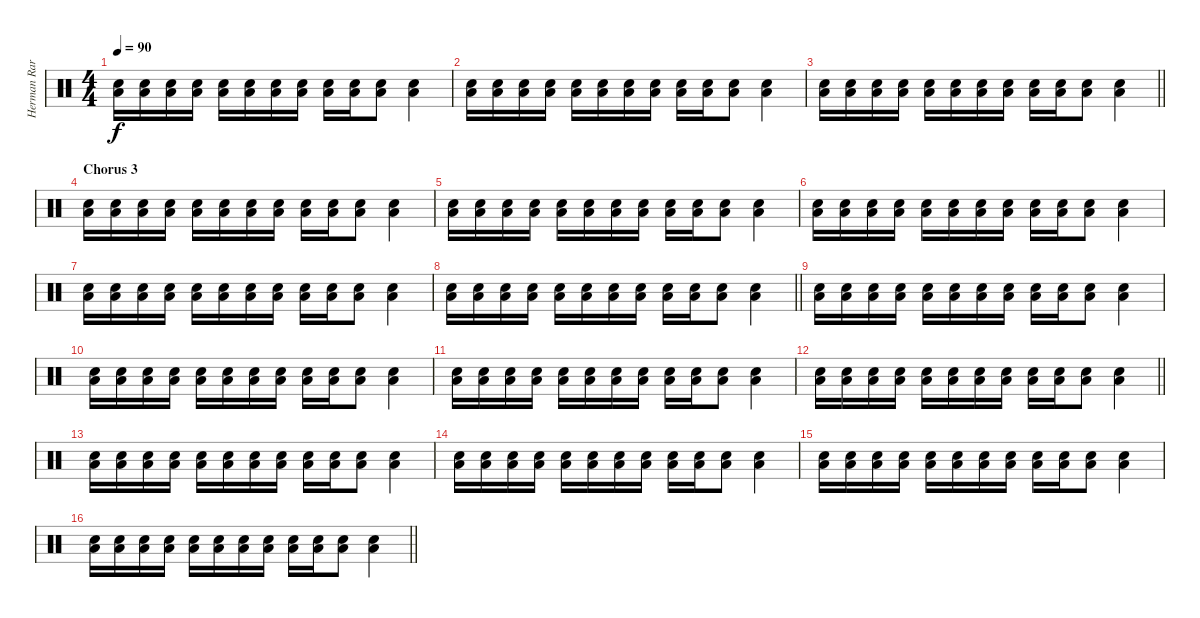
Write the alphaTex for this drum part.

\track ("Herman Rarebell (Drums)" "Herman Rar") {instrument percussion}
\staff {score}
\articulation defaults
\ts (4 4)
\tempo 90
\clef neutral
\ks c
("Electric Snare (hit)" "Low Floor Tom (hit)").16{dy f} ("Electric Snare (hit)" "Low Floor Tom (hit)").16 ("Electric Snare (hit)" "Low Floor Tom (hit)").16 ("Electric Snare (hit)" "Low Floor Tom (hit)").16 ("Electric Snare (hit)" "Low Floor Tom (hit)").16 ("Electric Snare (hit)" "Low Floor Tom (hit)").16 ("Electric Snare (hit)" "Low Floor Tom (hit)").16 ("Electric Snare (hit)" "Low Floor Tom (hit)").16 ("Electric Snare (hit)" "Low Floor Tom (hit)").16 ("Electric Snare (hit)" "Low Floor Tom (hit)").16 ("Electric Snare (hit)" "Low Floor Tom (hit)").8 ("Electric Snare (hit)" "Low Floor Tom (hit)").4{bd 240} |
("Electric Snare (hit)" "Low Floor Tom (hit)").16 ("Electric Snare (hit)" "Low Floor Tom (hit)").16 ("Electric Snare (hit)" "Low Floor Tom (hit)").16 ("Electric Snare (hit)" "Low Floor Tom (hit)").16 ("Electric Snare (hit)" "Low Floor Tom (hit)").16 ("Electric Snare (hit)" "Low Floor Tom (hit)").16 ("Electric Snare (hit)" "Low Floor Tom (hit)").16 ("Electric Snare (hit)" "Low Floor Tom (hit)").16 ("Electric Snare (hit)" "Low Floor Tom (hit)").16 ("Electric Snare (hit)" "Low Floor Tom (hit)").16 ("Electric Snare (hit)" "Low Floor Tom (hit)").8 ("Electric Snare (hit)" "Low Floor Tom (hit)").4{bd 240} |
\barLineRight lightlight
("Electric Snare (hit)" "Low Floor Tom (hit)").16 ("Electric Snare (hit)" "Low Floor Tom (hit)").16 ("Electric Snare (hit)" "Low Floor Tom (hit)").16 ("Electric Snare (hit)" "Low Floor Tom (hit)").16 ("Electric Snare (hit)" "Low Floor Tom (hit)").16 ("Electric Snare (hit)" "Low Floor Tom (hit)").16 ("Electric Snare (hit)" "Low Floor Tom (hit)").16 ("Electric Snare (hit)" "Low Floor Tom (hit)").16 ("Electric Snare (hit)" "Low Floor Tom (hit)").16 ("Electric Snare (hit)" "Low Floor Tom (hit)").16 ("Electric Snare (hit)" "Low Floor Tom (hit)").8 ("Electric Snare (hit)" "Low Floor Tom (hit)").4{bd 240} |
\section ("" "Chorus 3")
("Electric Snare (hit)" "Low Floor Tom (hit)").16 ("Electric Snare (hit)" "Low Floor Tom (hit)").16 ("Electric Snare (hit)" "Low Floor Tom (hit)").16 ("Electric Snare (hit)" "Low Floor Tom (hit)").16 ("Electric Snare (hit)" "Low Floor Tom (hit)").16 ("Electric Snare (hit)" "Low Floor Tom (hit)").16 ("Electric Snare (hit)" "Low Floor Tom (hit)").16 ("Electric Snare (hit)" "Low Floor Tom (hit)").16 ("Electric Snare (hit)" "Low Floor Tom (hit)").16 ("Electric Snare (hit)" "Low Floor Tom (hit)").16 ("Electric Snare (hit)" "Low Floor Tom (hit)").8 ("Electric Snare (hit)" "Low Floor Tom (hit)").4{bd 240} |
("Electric Snare (hit)" "Low Floor Tom (hit)").16 ("Electric Snare (hit)" "Low Floor Tom (hit)").16 ("Electric Snare (hit)" "Low Floor Tom (hit)").16 ("Electric Snare (hit)" "Low Floor Tom (hit)").16 ("Electric Snare (hit)" "Low Floor Tom (hit)").16 ("Electric Snare (hit)" "Low Floor Tom (hit)").16 ("Electric Snare (hit)" "Low Floor Tom (hit)").16 ("Electric Snare (hit)" "Low Floor Tom (hit)").16 ("Electric Snare (hit)" "Low Floor Tom (hit)").16 ("Electric Snare (hit)" "Low Floor Tom (hit)").16 ("Electric Snare (hit)" "Low Floor Tom (hit)").8 ("Electric Snare (hit)" "Low Floor Tom (hit)").4{bd 240} |
("Electric Snare (hit)" "Low Floor Tom (hit)").16 ("Electric Snare (hit)" "Low Floor Tom (hit)").16 ("Electric Snare (hit)" "Low Floor Tom (hit)").16 ("Electric Snare (hit)" "Low Floor Tom (hit)").16 ("Electric Snare (hit)" "Low Floor Tom (hit)").16 ("Electric Snare (hit)" "Low Floor Tom (hit)").16 ("Electric Snare (hit)" "Low Floor Tom (hit)").16 ("Electric Snare (hit)" "Low Floor Tom (hit)").16 ("Electric Snare (hit)" "Low Floor Tom (hit)").16 ("Electric Snare (hit)" "Low Floor Tom (hit)").16 ("Electric Snare (hit)" "Low Floor Tom (hit)").8 ("Electric Snare (hit)" "Low Floor Tom (hit)").4{bd 240} |
("Electric Snare (hit)" "Low Floor Tom (hit)").16 ("Electric Snare (hit)" "Low Floor Tom (hit)").16 ("Electric Snare (hit)" "Low Floor Tom (hit)").16 ("Electric Snare (hit)" "Low Floor Tom (hit)").16 ("Electric Snare (hit)" "Low Floor Tom (hit)").16 ("Electric Snare (hit)" "Low Floor Tom (hit)").16 ("Electric Snare (hit)" "Low Floor Tom (hit)").16 ("Electric Snare (hit)" "Low Floor Tom (hit)").16 ("Electric Snare (hit)" "Low Floor Tom (hit)").16 ("Electric Snare (hit)" "Low Floor Tom (hit)").16 ("Electric Snare (hit)" "Low Floor Tom (hit)").8 ("Electric Snare (hit)" "Low Floor Tom (hit)").4{bd 240} |
\barLineRight lightlight
("Electric Snare (hit)" "Low Floor Tom (hit)").16 ("Electric Snare (hit)" "Low Floor Tom (hit)").16 ("Electric Snare (hit)" "Low Floor Tom (hit)").16 ("Electric Snare (hit)" "Low Floor Tom (hit)").16 ("Electric Snare (hit)" "Low Floor Tom (hit)").16 ("Electric Snare (hit)" "Low Floor Tom (hit)").16 ("Electric Snare (hit)" "Low Floor Tom (hit)").16 ("Electric Snare (hit)" "Low Floor Tom (hit)").16 ("Electric Snare (hit)" "Low Floor Tom (hit)").16 ("Electric Snare (hit)" "Low Floor Tom (hit)").16 ("Electric Snare (hit)" "Low Floor Tom (hit)").8 ("Electric Snare (hit)" "Low Floor Tom (hit)").4{bd 240} |
("Electric Snare (hit)" "Low Floor Tom (hit)").16 ("Electric Snare (hit)" "Low Floor Tom (hit)").16 ("Electric Snare (hit)" "Low Floor Tom (hit)").16 ("Electric Snare (hit)" "Low Floor Tom (hit)").16 ("Electric Snare (hit)" "Low Floor Tom (hit)").16 ("Electric Snare (hit)" "Low Floor Tom (hit)").16 ("Electric Snare (hit)" "Low Floor Tom (hit)").16 ("Electric Snare (hit)" "Low Floor Tom (hit)").16 ("Electric Snare (hit)" "Low Floor Tom (hit)").16 ("Electric Snare (hit)" "Low Floor Tom (hit)").16 ("Electric Snare (hit)" "Low Floor Tom (hit)").8 ("Electric Snare (hit)" "Low Floor Tom (hit)").4{bd 240} |
("Electric Snare (hit)" "Low Floor Tom (hit)").16 ("Electric Snare (hit)" "Low Floor Tom (hit)").16 ("Electric Snare (hit)" "Low Floor Tom (hit)").16 ("Electric Snare (hit)" "Low Floor Tom (hit)").16 ("Electric Snare (hit)" "Low Floor Tom (hit)").16 ("Electric Snare (hit)" "Low Floor Tom (hit)").16 ("Electric Snare (hit)" "Low Floor Tom (hit)").16 ("Electric Snare (hit)" "Low Floor Tom (hit)").16 ("Electric Snare (hit)" "Low Floor Tom (hit)").16 ("Electric Snare (hit)" "Low Floor Tom (hit)").16 ("Electric Snare (hit)" "Low Floor Tom (hit)").8 ("Electric Snare (hit)" "Low Floor Tom (hit)").4{bd 240} |
("Electric Snare (hit)" "Low Floor Tom (hit)").16 ("Electric Snare (hit)" "Low Floor Tom (hit)").16 ("Electric Snare (hit)" "Low Floor Tom (hit)").16 ("Electric Snare (hit)" "Low Floor Tom (hit)").16 ("Electric Snare (hit)" "Low Floor Tom (hit)").16 ("Electric Snare (hit)" "Low Floor Tom (hit)").16 ("Electric Snare (hit)" "Low Floor Tom (hit)").16 ("Electric Snare (hit)" "Low Floor Tom (hit)").16 ("Electric Snare (hit)" "Low Floor Tom (hit)").16 ("Electric Snare (hit)" "Low Floor Tom (hit)").16 ("Electric Snare (hit)" "Low Floor Tom (hit)").8 ("Electric Snare (hit)" "Low Floor Tom (hit)").4{bd 240} |
\barLineRight lightlight
("Electric Snare (hit)" "Low Floor Tom (hit)").16 ("Electric Snare (hit)" "Low Floor Tom (hit)").16 ("Electric Snare (hit)" "Low Floor Tom (hit)").16 ("Electric Snare (hit)" "Low Floor Tom (hit)").16 ("Electric Snare (hit)" "Low Floor Tom (hit)").16 ("Electric Snare (hit)" "Low Floor Tom (hit)").16 ("Electric Snare (hit)" "Low Floor Tom (hit)").16 ("Electric Snare (hit)" "Low Floor Tom (hit)").16 ("Electric Snare (hit)" "Low Floor Tom (hit)").16 ("Electric Snare (hit)" "Low Floor Tom (hit)").16 ("Electric Snare (hit)" "Low Floor Tom (hit)").8 ("Electric Snare (hit)" "Low Floor Tom (hit)").4{bd 240} |
("Electric Snare (hit)" "Low Floor Tom (hit)").16 ("Electric Snare (hit)" "Low Floor Tom (hit)").16 ("Electric Snare (hit)" "Low Floor Tom (hit)").16 ("Electric Snare (hit)" "Low Floor Tom (hit)").16 ("Electric Snare (hit)" "Low Floor Tom (hit)").16 ("Electric Snare (hit)" "Low Floor Tom (hit)").16 ("Electric Snare (hit)" "Low Floor Tom (hit)").16 ("Electric Snare (hit)" "Low Floor Tom (hit)").16 ("Electric Snare (hit)" "Low Floor Tom (hit)").16 ("Electric Snare (hit)" "Low Floor Tom (hit)").16 ("Electric Snare (hit)" "Low Floor Tom (hit)").8 ("Electric Snare (hit)" "Low Floor Tom (hit)").4{bd 240} |
("Electric Snare (hit)" "Low Floor Tom (hit)").16 ("Electric Snare (hit)" "Low Floor Tom (hit)").16 ("Electric Snare (hit)" "Low Floor Tom (hit)").16 ("Electric Snare (hit)" "Low Floor Tom (hit)").16 ("Electric Snare (hit)" "Low Floor Tom (hit)").16 ("Electric Snare (hit)" "Low Floor Tom (hit)").16 ("Electric Snare (hit)" "Low Floor Tom (hit)").16 ("Electric Snare (hit)" "Low Floor Tom (hit)").16 ("Electric Snare (hit)" "Low Floor Tom (hit)").16 ("Electric Snare (hit)" "Low Floor Tom (hit)").16 ("Electric Snare (hit)" "Low Floor Tom (hit)").8 ("Electric Snare (hit)" "Low Floor Tom (hit)").4{bd 240} |
("Electric Snare (hit)" "Low Floor Tom (hit)").16 ("Electric Snare (hit)" "Low Floor Tom (hit)").16 ("Electric Snare (hit)" "Low Floor Tom (hit)").16 ("Electric Snare (hit)" "Low Floor Tom (hit)").16 ("Electric Snare (hit)" "Low Floor Tom (hit)").16 ("Electric Snare (hit)" "Low Floor Tom (hit)").16 ("Electric Snare (hit)" "Low Floor Tom (hit)").16 ("Electric Snare (hit)" "Low Floor Tom (hit)").16 ("Electric Snare (hit)" "Low Floor Tom (hit)").16 ("Electric Snare (hit)" "Low Floor Tom (hit)").16 ("Electric Snare (hit)" "Low Floor Tom (hit)").8 ("Electric Snare (hit)" "Low Floor Tom (hit)").4{bd 240} |
\barLineRight lightlight
("Electric Snare (hit)" "Low Floor Tom (hit)").16 ("Electric Snare (hit)" "Low Floor Tom (hit)").16 ("Electric Snare (hit)" "Low Floor Tom (hit)").16 ("Electric Snare (hit)" "Low Floor Tom (hit)").16 ("Electric Snare (hit)" "Low Floor Tom (hit)").16 ("Electric Snare (hit)" "Low Floor Tom (hit)").16 ("Electric Snare (hit)" "Low Floor Tom (hit)").16 ("Electric Snare (hit)" "Low Floor Tom (hit)").16 ("Electric Snare (hit)" "Low Floor Tom (hit)").16 ("Electric Snare (hit)" "Low Floor Tom (hit)").16 ("Electric Snare (hit)" "Low Floor Tom (hit)").8 ("Electric Snare (hit)" "Low Floor Tom (hit)").4{bd 240}
